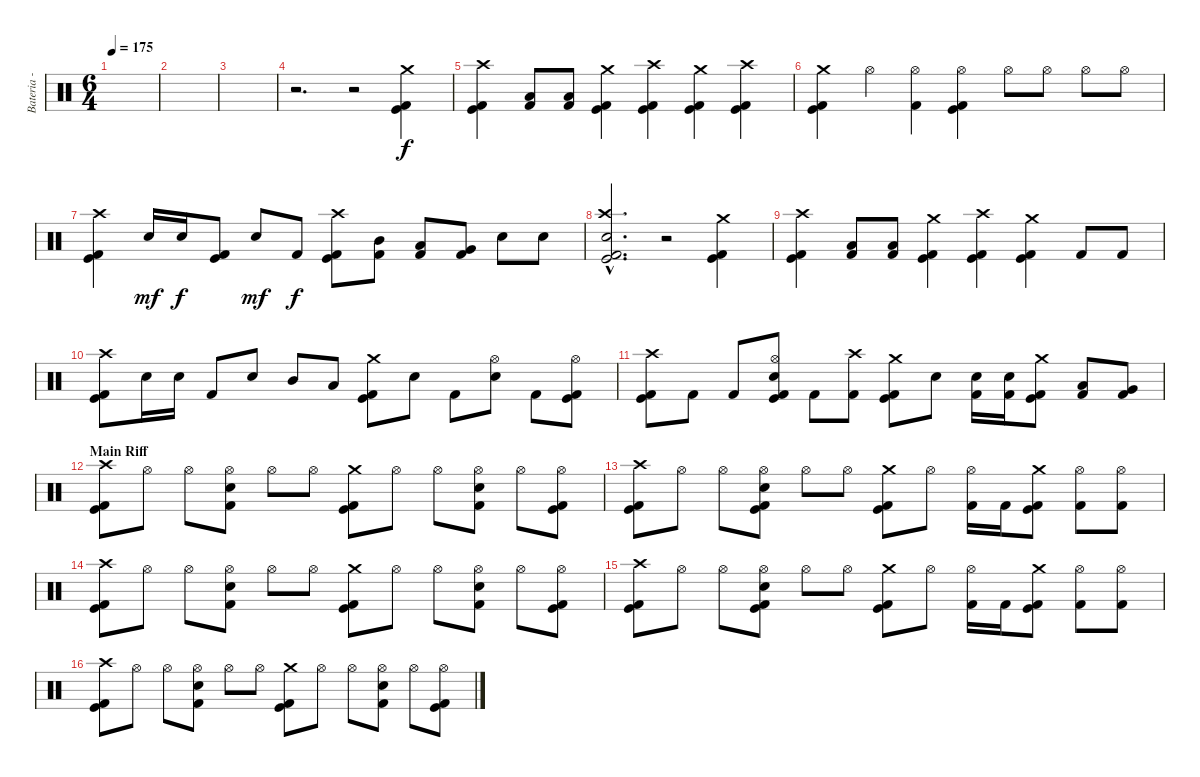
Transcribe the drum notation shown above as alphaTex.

\track ("Bateria - Drums" "Bateria - ") {instrument percussion}
\staff {score}
\articulation defaults
\ts (6 4)
\section ("" "")
\tempo 175
\clef neutral
\ks c
|
|
|
r.2{d} r.2 ("Crash medium (hit)" "Kick (hit)" "Kick (hit) 2").4{volume 13} |
("Crash high (hit)" "Kick (hit)" "Kick (hit) 2").4 ("Low Tom (hit)" "Kick (hit) 2").8 ("Low Tom (hit)" "Kick (hit) 2").8 ("Crash medium (hit)" "Kick (hit)" "Kick (hit) 2").4 ("Crash high (hit)" "Kick (hit)" "Kick (hit) 2").4 ("Crash medium (hit)" "Kick (hit)" "Kick (hit) 2").4 ("Crash high (hit)" "Kick (hit)" "Kick (hit) 2").4 |
("Crash medium (hit)" "Kick (hit)" "Kick (hit) 2").4 "Hi-Hat (open)".4 ("Hi-Hat (open)" "Kick (hit) 2").4 ("Hi-Hat (open)" "Kick (hit)" "Kick (hit) 2").4 "Hi-Hat (open)".8 "Hi-Hat (open)".8 "Hi-Hat (open)".8 "Hi-Hat (open)".8 |
("Crash high (hit)" "Kick (hit)" "Kick (hit) 2").4 "Snare (hit) 2".16{dy mf} "Snare (hit) 2".16{dy f} ("Kick (hit)" "Kick (hit) 2").8 "Snare (hit) 2".8{dy mf} "Kick (hit) 2".8{dy f} ("Crash high (hit)" "Kick (hit)" "Kick (hit) 2").8 ("Mid Tom (hit)" "Kick (hit) 2").8 ("Low Tom (hit)" "Kick (hit) 2").8 ("Very Low Tom (hit)" "Kick (hit) 2").8 "Snare (hit) 2".8 "Snare (hit) 2".8 |
("Crash high (hit)"{hac} "Snare (hit) 2"{hac} "Kick (hit)"{hac} "Kick (hit) 2"{hac}).2{d} r.2 ("Crash medium (hit)" "Kick (hit)" "Kick (hit) 2").4 |
("Crash high (hit)" "Kick (hit)" "Kick (hit) 2").4 ("Low Tom (hit)" "Kick (hit) 2").8 ("Low Tom (hit)" "Kick (hit) 2").8 ("Crash medium (hit)" "Kick (hit)" "Kick (hit) 2").4 ("Crash high (hit)" "Kick (hit)" "Kick (hit) 2").4 ("Crash medium (hit)" "Kick (hit)" "Kick (hit) 2").4 "Kick (hit) 2".8 "Kick (hit) 2".8 |
("Crash high (hit)" "Kick (hit)" "Kick (hit) 2").8 "Snare (hit) 2".16 "Snare (hit) 2".16 "Kick (hit) 2".8 "Snare (hit) 2".8 "Mid Tom (hit)".8 "Low Tom (hit)".8 ("Crash medium (hit)" "Kick (hit)" "Kick (hit) 2").8 "Snare (hit) 2".8 "Kick (hit) 2".8 ("Hi-Hat (open)" "Snare (hit) 2").8 "Kick (hit) 2".8 ("Hi-Hat (open)" "Kick (hit)" "Kick (hit) 2").8 |
("Crash high (hit)" "Kick (hit)" "Kick (hit) 2").8 "Kick (hit) 2".8 "Kick (hit) 2".8 ("Hi-Hat (open)" "Snare (hit) 2" "Kick (hit)" "Kick (hit) 2").8 "Kick (hit) 2".8 ("Crash high (hit)" "Kick (hit) 2").8 ("Crash medium (hit)" "Kick (hit)" "Kick (hit) 2").8 "Snare (hit) 2".8 ("Snare (hit) 2" "Kick (hit) 2").16 ("Snare (hit) 2" "Kick (hit) 2").16 ("Crash medium (hit)" "Kick (hit)" "Kick (hit) 2").8 ("Low Tom (hit)" "Kick (hit) 2").8 ("Very Low Tom (hit)" "Kick (hit) 2").8 |
\section ("" "Main Riff")
("Crash high (hit)" "Kick (hit)" "Kick (hit) 2").8 "Hi-Hat (open)".8 "Hi-Hat (open)".8 ("Hi-Hat (open)" "Snare (hit) 2" "Kick (hit) 2").8 "Hi-Hat (open)".8 "Hi-Hat (open)".8 ("Crash medium (hit)" "Kick (hit)" "Kick (hit) 2").8 "Hi-Hat (open)".8 "Hi-Hat (open)".8 ("Hi-Hat (open)" "Snare (hit) 2" "Kick (hit) 2").8 "Hi-Hat (open)".8 ("Hi-Hat (open)" "Kick (hit)" "Kick (hit) 2").8 |
("Crash high (hit)" "Kick (hit)" "Kick (hit) 2").8 "Hi-Hat (open)".8 "Hi-Hat (open)".8 ("Hi-Hat (open)" "Snare (hit) 2" "Kick (hit)" "Kick (hit) 2").8 "Hi-Hat (open)".8 "Hi-Hat (open)".8 ("Crash medium (hit)" "Kick (hit)" "Kick (hit) 2").8 "Hi-Hat (open)".8 ("Hi-Hat (open)" "Kick (hit) 2").16 "Kick (hit) 2".16 ("Crash medium (hit)" "Kick (hit)" "Kick (hit) 2").8 ("Hi-Hat (open)" "Kick (hit) 2").8 ("Hi-Hat (open)" "Kick (hit) 2").8 |
("Crash high (hit)" "Kick (hit)" "Kick (hit) 2").8 "Hi-Hat (open)".8 "Hi-Hat (open)".8 ("Hi-Hat (open)" "Snare (hit) 2" "Kick (hit) 2").8 "Hi-Hat (open)".8 "Hi-Hat (open)".8 ("Crash medium (hit)" "Kick (hit)" "Kick (hit) 2").8 "Hi-Hat (open)".8 "Hi-Hat (open)".8 ("Hi-Hat (open)" "Snare (hit) 2" "Kick (hit) 2").8 "Hi-Hat (open)".8 ("Hi-Hat (open)" "Kick (hit)" "Kick (hit) 2").8 |
("Crash high (hit)" "Kick (hit)" "Kick (hit) 2").8 "Hi-Hat (open)".8 "Hi-Hat (open)".8 ("Hi-Hat (open)" "Snare (hit) 2" "Kick (hit)" "Kick (hit) 2").8 "Hi-Hat (open)".8 "Hi-Hat (open)".8 ("Crash medium (hit)" "Kick (hit)" "Kick (hit) 2").8 "Hi-Hat (open)".8 ("Hi-Hat (open)" "Kick (hit) 2").16 "Kick (hit) 2".16 ("Crash medium (hit)" "Kick (hit)" "Kick (hit) 2").8 ("Hi-Hat (open)" "Kick (hit) 2").8 ("Hi-Hat (open)" "Kick (hit) 2").8 |
("Crash high (hit)" "Kick (hit)" "Kick (hit) 2").8 "Hi-Hat (open)".8 "Hi-Hat (open)".8 ("Hi-Hat (open)" "Snare (hit) 2" "Kick (hit) 2").8 "Hi-Hat (open)".8 "Hi-Hat (open)".8 ("Crash medium (hit)" "Kick (hit)" "Kick (hit) 2").8 "Hi-Hat (open)".8 "Hi-Hat (open)".8 ("Hi-Hat (open)" "Snare (hit) 2" "Kick (hit) 2").8 "Hi-Hat (open)".8 ("Hi-Hat (open)" "Kick (hit)" "Kick (hit) 2").8
